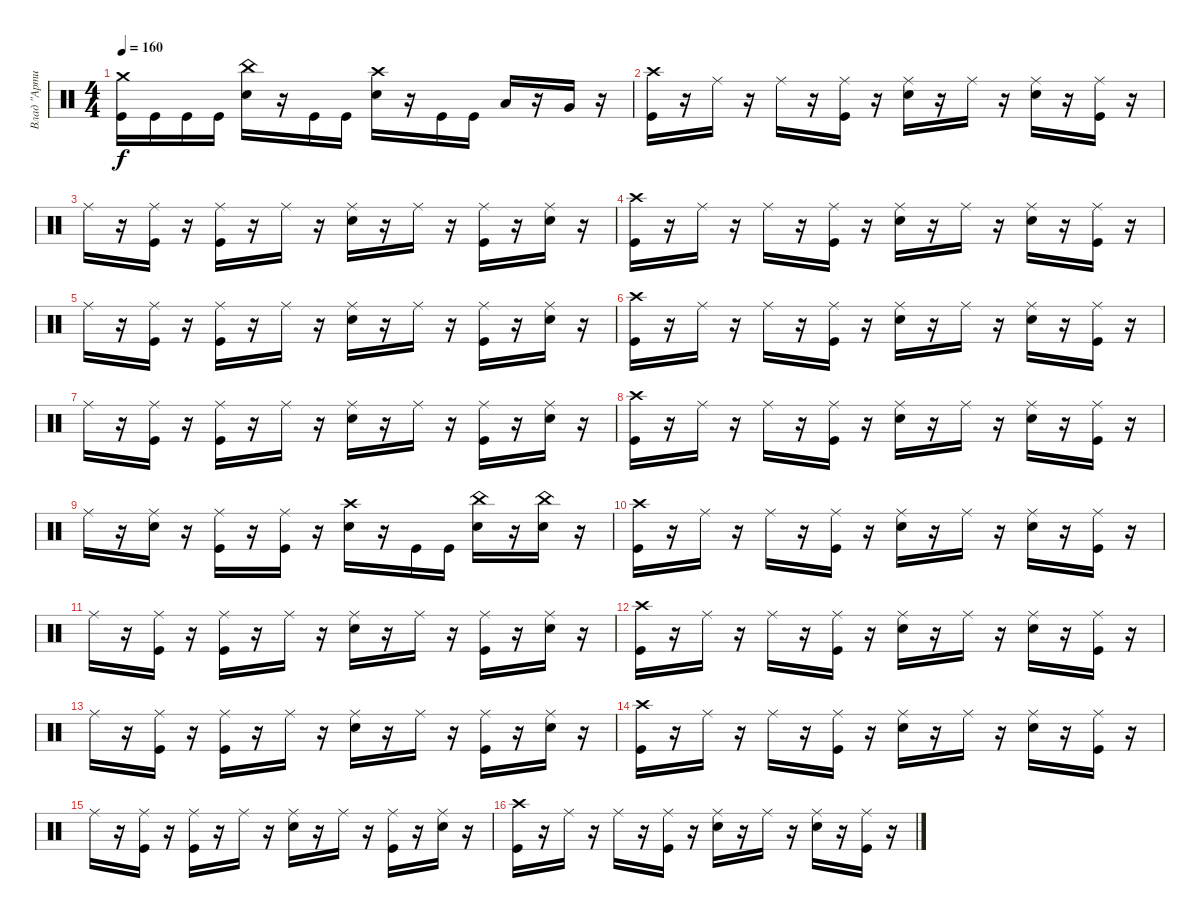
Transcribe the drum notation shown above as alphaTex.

\track ("Влад \"Артист\"" "Влад \"Арти") {instrument percussion}
\staff {score}
\articulation defaults
\ts (4 4)
\tempo 160
\clef neutral
\ks c
("Kick (hit)" "Crash medium (hit)").16{dy f} "Kick (hit)".16 "Kick (hit)".16 "Kick (hit)".16 ("China (hit)" "Snare (hit) 2").16 r.16 "Kick (hit)".16 "Kick (hit)".16 ("Crash high (hit)" "Snare (hit) 2").16 r.16 "Kick (hit)".16 "Kick (hit)".16 "Low Tom (hit)".16 r.16 "Very Low Tom (hit)".16 r.16 |
("Crash high (hit)" "Kick (hit)").16 r.16 "Ride (middle)".16 r.16 "Ride (middle)".16 r.16 ("Ride (middle)" "Kick (hit)").16 r.16 ("Ride (middle)" "Snare (hit) 2").16 r.16 "Ride (middle)".16 r.16 ("Ride (middle)" "Snare (hit) 2").16 r.16 ("Ride (middle)" "Kick (hit)").16 r.16 |
"Ride (middle)".16 r.16 ("Ride (middle)" "Kick (hit)").16 r.16 ("Ride (middle)" "Kick (hit)").16 r.16 "Ride (middle)".16 r.16 ("Ride (middle)" "Snare (hit) 2").16 r.16 "Ride (middle)".16 r.16 ("Ride (middle)" "Kick (hit)").16 r.16 ("Ride (middle)" "Snare (hit) 2").16 r.16 |
("Crash high (hit)" "Kick (hit)").16 r.16 "Ride (middle)".16 r.16 "Ride (middle)".16 r.16 ("Ride (middle)" "Kick (hit)").16 r.16 ("Ride (middle)" "Snare (hit) 2").16 r.16 "Ride (middle)".16 r.16 ("Ride (middle)" "Snare (hit) 2").16 r.16 ("Ride (middle)" "Kick (hit)").16 r.16 |
"Ride (middle)".16 r.16 ("Ride (middle)" "Kick (hit)").16 r.16 ("Ride (middle)" "Kick (hit)").16 r.16 "Ride (middle)".16 r.16 ("Ride (middle)" "Snare (hit) 2").16 r.16 "Ride (middle)".16 r.16 ("Ride (middle)" "Kick (hit)").16 r.16 ("Ride (middle)" "Snare (hit) 2").16 r.16 |
("Crash high (hit)" "Kick (hit)").16 r.16 "Ride (middle)".16 r.16 "Ride (middle)".16 r.16 ("Ride (middle)" "Kick (hit)").16 r.16 ("Ride (middle)" "Snare (hit) 2").16 r.16 "Ride (middle)".16 r.16 ("Ride (middle)" "Snare (hit) 2").16 r.16 ("Ride (middle)" "Kick (hit)").16 r.16 |
"Ride (middle)".16 r.16 ("Ride (middle)" "Kick (hit)").16 r.16 ("Ride (middle)" "Kick (hit)").16 r.16 "Ride (middle)".16 r.16 ("Ride (middle)" "Snare (hit) 2").16 r.16 "Ride (middle)".16 r.16 ("Ride (middle)" "Kick (hit)").16 r.16 ("Ride (middle)" "Snare (hit) 2").16 r.16 |
("Crash high (hit)" "Kick (hit)").16 r.16 "Ride (middle)".16 r.16 "Ride (middle)".16 r.16 ("Ride (middle)" "Kick (hit)").16 r.16 ("Ride (middle)" "Snare (hit) 2").16 r.16 "Ride (middle)".16 r.16 ("Ride (middle)" "Snare (hit) 2").16 r.16 ("Ride (middle)" "Kick (hit)").16 r.16 |
"Ride (middle)".16 r.16 ("Snare (hit) 2" "Ride (middle)").16 r.16 ("Ride (middle)" "Kick (hit)").16 r.16 ("Ride (middle)" "Kick (hit)").16 r.16 ("Crash high (hit)" "Snare (hit) 2").16 r.16 "Kick (hit)".16 "Kick (hit)".16 ("China (hit)" "Snare (hit) 2").16 r.16 ("China (hit)" "Snare (hit) 2").16 r.16 |
("Crash high (hit)" "Kick (hit)").16 r.16 "Ride (middle)".16 r.16 "Ride (middle)".16 r.16 ("Ride (middle)" "Kick (hit)").16 r.16 ("Ride (middle)" "Snare (hit) 2").16 r.16 "Ride (middle)".16 r.16 ("Ride (middle)" "Snare (hit) 2").16 r.16 ("Ride (middle)" "Kick (hit)").16 r.16 |
"Ride (middle)".16 r.16 ("Ride (middle)" "Kick (hit)").16 r.16 ("Ride (middle)" "Kick (hit)").16 r.16 "Ride (middle)".16 r.16 ("Ride (middle)" "Snare (hit) 2").16 r.16 "Ride (middle)".16 r.16 ("Ride (middle)" "Kick (hit)").16 r.16 ("Ride (middle)" "Snare (hit) 2").16 r.16 |
("Crash high (hit)" "Kick (hit)").16 r.16 "Ride (middle)".16 r.16 "Ride (middle)".16 r.16 ("Ride (middle)" "Kick (hit)").16 r.16 ("Ride (middle)" "Snare (hit) 2").16 r.16 "Ride (middle)".16 r.16 ("Ride (middle)" "Snare (hit) 2").16 r.16 ("Ride (middle)" "Kick (hit)").16 r.16 |
"Ride (middle)".16 r.16 ("Kick (hit)" "Ride (middle)").16 r.16 ("Ride (middle)" "Kick (hit)").16 r.16 "Ride (middle)".16 r.16 ("Ride (middle)" "Snare (hit) 2").16 r.16 "Ride (middle)".16 r.16 ("Ride (middle)" "Kick (hit)").16 r.16 ("Ride (middle)" "Snare (hit) 2").16 r.16 |
("Crash high (hit)" "Kick (hit)").16 r.16 "Ride (middle)".16 r.16 "Ride (middle)".16 r.16 ("Ride (middle)" "Kick (hit)").16 r.16 ("Ride (middle)" "Snare (hit) 2").16 r.16 "Ride (middle)".16 r.16 ("Ride (middle)" "Snare (hit) 2").16 r.16 ("Ride (middle)" "Kick (hit)").16 r.16 |
"Ride (middle)".16 r.16 ("Ride (middle)" "Kick (hit)").16 r.16 ("Ride (middle)" "Kick (hit)").16 r.16 "Ride (middle)".16 r.16 ("Ride (middle)" "Snare (hit) 2").16 r.16 "Ride (middle)".16 r.16 ("Ride (middle)" "Kick (hit)").16 r.16 ("Ride (middle)" "Snare (hit) 2").16 r.16 |
("Crash high (hit)" "Kick (hit)").16 r.16 "Ride (middle)".16 r.16 "Ride (middle)".16 r.16 ("Ride (middle)" "Kick (hit)").16 r.16 ("Ride (middle)" "Snare (hit) 2").16 r.16 "Ride (middle)".16 r.16 ("Ride (middle)" "Snare (hit) 2").16 r.16 ("Ride (middle)" "Kick (hit)").16 r.16
